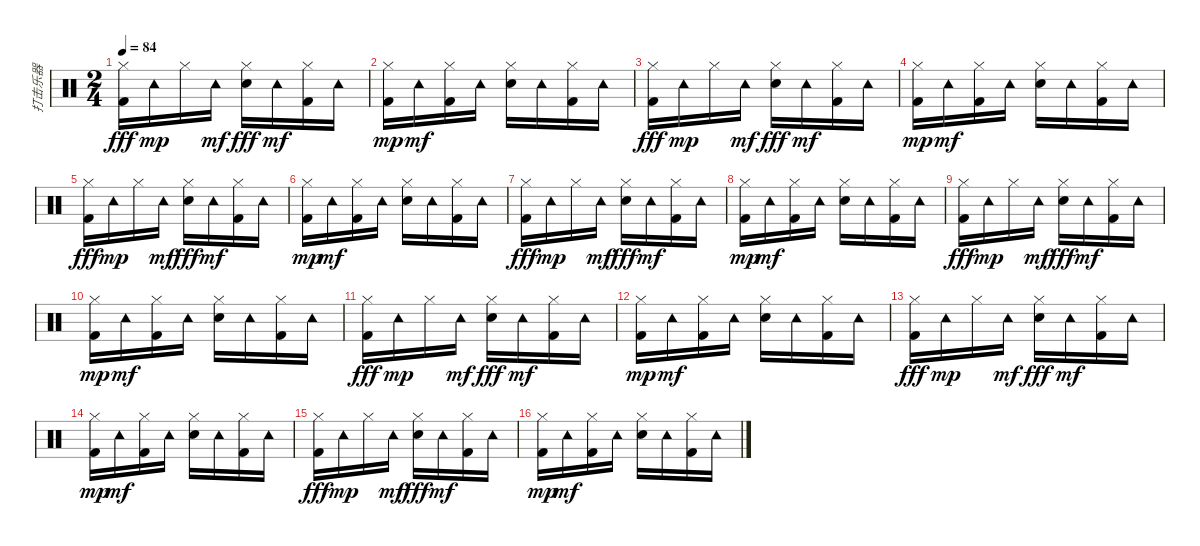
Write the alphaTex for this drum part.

\track ("打击乐器" "打击乐器") {instrument percussion}
\staff {score}
\articulation defaults
\ts (2 4)
\tempo 84
\clef neutral
\ks c
("Hi-Hat (closed)" "Kick (hit) 2").16{dy fff} "Tambourine (hit)".16{dy mp} "Hi-Hat (closed)".16 "Tambourine (hit)".16{dy mf} ("Hi-Hat (closed)" "Snare (hit) 2").16{dy fff} "Tambourine (hit)".16{dy mf} ("Hi-Hat (closed)" "Kick (hit) 2").16 "Tambourine (hit)".16 |
("Hi-Hat (closed)" "Kick (hit) 2").16{dy mp} "Tambourine (hit)".16{dy mf} ("Hi-Hat (closed)" "Kick (hit) 2").16 "Tambourine (hit)".16 ("Hi-Hat (closed)" "Snare (hit) 2").16 "Tambourine (hit)".16 ("Hi-Hat (closed)" "Kick (hit) 2").16 "Tambourine (hit)".16 |
("Hi-Hat (closed)" "Kick (hit) 2").16{dy fff} "Tambourine (hit)".16{dy mp} "Hi-Hat (closed)".16 "Tambourine (hit)".16{dy mf} ("Hi-Hat (closed)" "Snare (hit) 2").16{dy fff} "Tambourine (hit)".16{dy mf} ("Hi-Hat (closed)" "Kick (hit) 2").16 "Tambourine (hit)".16 |
("Hi-Hat (closed)" "Kick (hit) 2").16{dy mp} "Tambourine (hit)".16{dy mf} ("Hi-Hat (closed)" "Kick (hit) 2").16 "Tambourine (hit)".16 ("Hi-Hat (closed)" "Snare (hit) 2").16 "Tambourine (hit)".16 ("Hi-Hat (closed)" "Kick (hit) 2").16 "Tambourine (hit)".16 |
("Hi-Hat (closed)" "Kick (hit) 2").16{dy fff} "Tambourine (hit)".16{dy mp} "Hi-Hat (closed)".16 "Tambourine (hit)".16{dy mf} ("Hi-Hat (closed)" "Snare (hit) 2").16{dy fff} "Tambourine (hit)".16{dy mf} ("Hi-Hat (closed)" "Kick (hit) 2").16 "Tambourine (hit)".16 |
("Hi-Hat (closed)" "Kick (hit) 2").16{dy mp} "Tambourine (hit)".16{dy mf} ("Hi-Hat (closed)" "Kick (hit) 2").16 "Tambourine (hit)".16 ("Hi-Hat (closed)" "Snare (hit) 2").16 "Tambourine (hit)".16 ("Hi-Hat (closed)" "Kick (hit) 2").16 "Tambourine (hit)".16 |
("Hi-Hat (closed)" "Kick (hit) 2").16{dy fff} "Tambourine (hit)".16{dy mp} "Hi-Hat (closed)".16 "Tambourine (hit)".16{dy mf} ("Hi-Hat (closed)" "Snare (hit) 2").16{dy fff} "Tambourine (hit)".16{dy mf} ("Hi-Hat (closed)" "Kick (hit) 2").16 "Tambourine (hit)".16 |
("Hi-Hat (closed)" "Kick (hit) 2").16{dy mp} "Tambourine (hit)".16{dy mf} ("Hi-Hat (closed)" "Kick (hit) 2").16 "Tambourine (hit)".16 ("Hi-Hat (closed)" "Snare (hit) 2").16 "Tambourine (hit)".16 ("Hi-Hat (closed)" "Kick (hit) 2").16 "Tambourine (hit)".16 |
("Hi-Hat (closed)" "Kick (hit) 2").16{dy fff} "Tambourine (hit)".16{dy mp} "Hi-Hat (closed)".16 "Tambourine (hit)".16{dy mf} ("Hi-Hat (closed)" "Snare (hit) 2").16{dy fff} "Tambourine (hit)".16{dy mf} ("Hi-Hat (closed)" "Kick (hit) 2").16 "Tambourine (hit)".16 |
("Hi-Hat (closed)" "Kick (hit) 2").16{dy mp} "Tambourine (hit)".16{dy mf} ("Hi-Hat (closed)" "Kick (hit) 2").16 "Tambourine (hit)".16 ("Hi-Hat (closed)" "Snare (hit) 2").16 "Tambourine (hit)".16 ("Hi-Hat (closed)" "Kick (hit) 2").16 "Tambourine (hit)".16 |
("Hi-Hat (closed)" "Kick (hit) 2").16{dy fff} "Tambourine (hit)".16{dy mp} "Hi-Hat (closed)".16 "Tambourine (hit)".16{dy mf} ("Hi-Hat (closed)" "Snare (hit) 2").16{dy fff} "Tambourine (hit)".16{dy mf} ("Hi-Hat (closed)" "Kick (hit) 2").16 "Tambourine (hit)".16 |
("Hi-Hat (closed)" "Kick (hit) 2").16{dy mp} "Tambourine (hit)".16{dy mf} ("Hi-Hat (closed)" "Kick (hit) 2").16 "Tambourine (hit)".16 ("Hi-Hat (closed)" "Snare (hit) 2").16 "Tambourine (hit)".16 ("Hi-Hat (closed)" "Kick (hit) 2").16 "Tambourine (hit)".16 |
("Hi-Hat (closed)" "Kick (hit) 2").16{dy fff} "Tambourine (hit)".16{dy mp} "Hi-Hat (closed)".16 "Tambourine (hit)".16{dy mf} ("Hi-Hat (closed)" "Snare (hit) 2").16{dy fff} "Tambourine (hit)".16{dy mf} ("Hi-Hat (closed)" "Kick (hit) 2").16 "Tambourine (hit)".16 |
("Hi-Hat (closed)" "Kick (hit) 2").16{dy mp} "Tambourine (hit)".16{dy mf} ("Hi-Hat (closed)" "Kick (hit) 2").16 "Tambourine (hit)".16 ("Hi-Hat (closed)" "Snare (hit) 2").16 "Tambourine (hit)".16 ("Hi-Hat (closed)" "Kick (hit) 2").16 "Tambourine (hit)".16 |
("Hi-Hat (closed)" "Kick (hit) 2").16{dy fff} "Tambourine (hit)".16{dy mp} "Hi-Hat (closed)".16 "Tambourine (hit)".16{dy mf} ("Hi-Hat (closed)" "Snare (hit) 2").16{dy fff} "Tambourine (hit)".16{dy mf} ("Hi-Hat (closed)" "Kick (hit) 2").16 "Tambourine (hit)".16 |
("Hi-Hat (closed)" "Kick (hit) 2").16{dy mp} "Tambourine (hit)".16{dy mf} ("Hi-Hat (closed)" "Kick (hit) 2").16 "Tambourine (hit)".16 ("Hi-Hat (closed)" "Snare (hit) 2").16 "Tambourine (hit)".16 ("Hi-Hat (closed)" "Kick (hit) 2").16 "Tambourine (hit)".16
